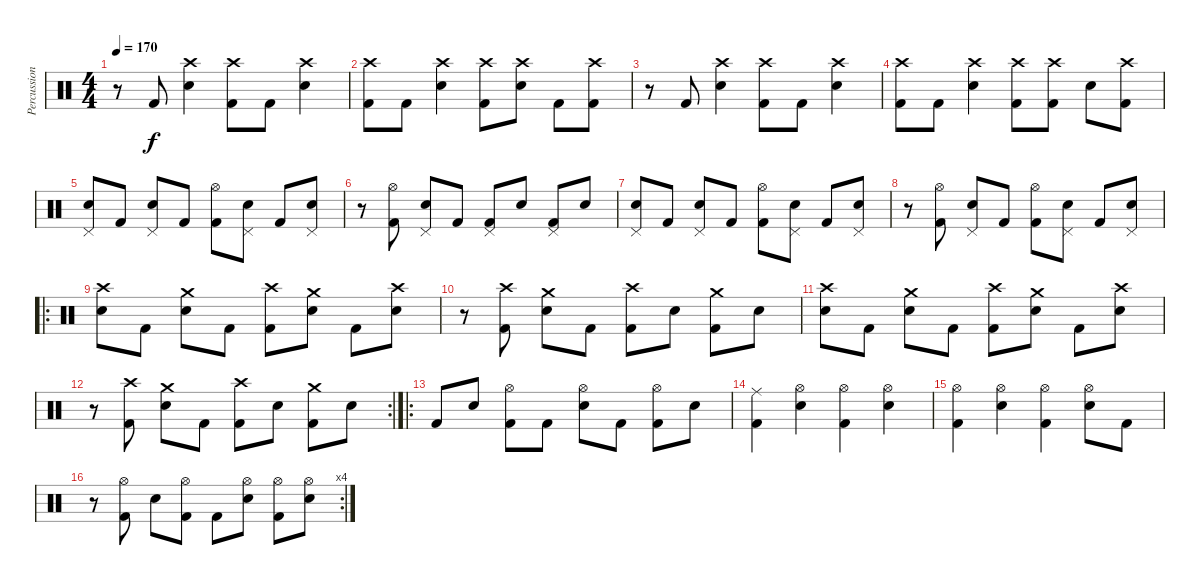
\track ("Percussion" "Percussion") {instrument percussion}
\staff {score}
\articulation defaults
\ts (4 4)
\tempo 170
\clef neutral
\ks c
r.8{dy f} "Kick (hit) 2".8 ("Crash high (hit)" "Snare (hit) 2").4 ("Crash high (hit)" "Kick (hit) 2").8 "Kick (hit) 2".8 ("Crash high (hit)" "Snare (hit) 2").4 |
("Crash high (hit)" "Kick (hit) 2").8 "Kick (hit) 2".8 ("Crash high (hit)" "Snare (hit) 2").4 ("Crash high (hit)" "Kick (hit) 2").8 ("Crash high (hit)" "Snare (hit) 2").8 "Kick (hit) 2".8 ("Crash high (hit)" "Kick (hit) 2").8 |
r.8 "Kick (hit) 2".8 ("Crash high (hit)" "Snare (hit) 2").4 ("Crash high (hit)" "Kick (hit) 2").8 "Kick (hit) 2".8 ("Crash high (hit)" "Snare (hit) 2").4 |
("Crash high (hit)" "Kick (hit) 2").8 "Kick (hit) 2".8 ("Crash high (hit)" "Snare (hit) 2").4 ("Crash high (hit)" "Kick (hit) 2").8 ("Crash high (hit)" "Kick (hit) 2").8 "Snare (hit) 2".8 ("Crash high (hit)" "Kick (hit) 2").8 |
("Pedal Hi-Hat (hit)" "Snare (hit) 2").8{volume 11} "Kick (hit) 2".8 ("Pedal Hi-Hat (hit)" "Snare (hit) 2").8 "Kick (hit) 2".8 ("Hi-Hat (open)" "Kick (hit) 2").8 ("Pedal Hi-Hat (hit)" "Snare (hit) 2").8 "Kick (hit) 2".8 ("Pedal Hi-Hat (hit)" "Snare (hit) 2").8 |
r.8 ("Hi-Hat (open)" "Kick (hit) 2").8 ("Pedal Hi-Hat (hit)" "Snare (hit) 2").8 "Kick (hit) 2".8 ("Pedal Hi-Hat (hit)" "Kick (hit) 2").8 "Snare (hit) 2".8 ("Pedal Hi-Hat (hit)" "Kick (hit) 2").8 "Snare (hit) 2".8 |
("Pedal Hi-Hat (hit)" "Snare (hit) 2").8 "Kick (hit) 2".8 ("Pedal Hi-Hat (hit)" "Snare (hit) 2").8 "Kick (hit) 2".8 ("Hi-Hat (open)" "Kick (hit) 2").8 ("Pedal Hi-Hat (hit)" "Snare (hit) 2").8 "Kick (hit) 2".8 ("Pedal Hi-Hat (hit)" "Snare (hit) 2").8 |
r.8 ("Hi-Hat (open)" "Kick (hit) 2").8 ("Pedal Hi-Hat (hit)" "Snare (hit) 2").8 "Kick (hit) 2".8 ("Hi-Hat (open)" "Kick (hit) 2").8 ("Pedal Hi-Hat (hit)" "Snare (hit) 2").8 "Kick (hit) 2".8 ("Pedal Hi-Hat (hit)" "Snare (hit) 2").8 |
\ro
("Crash high (hit)" "Snare (hit) 2").8{volume 16} "Kick (hit) 2".8 ("Crash medium (hit)" "Snare (hit) 2").8 "Kick (hit) 2".8 ("Crash high (hit)" "Kick (hit) 2").8 ("Crash medium (hit)" "Snare (hit) 2").8 "Kick (hit) 2".8 ("Crash high (hit)" "Snare (hit) 2").8 |
r.8 ("Crash high (hit)" "Kick (hit) 2").8 ("Crash medium (hit)" "Snare (hit) 2").8 "Kick (hit) 2".8 ("Crash high (hit)" "Kick (hit) 2").8 "Snare (hit) 2".8 ("Crash medium (hit)" "Kick (hit) 2").8 "Snare (hit) 2".8 |
("Crash high (hit)" "Snare (hit) 2").8{volume 16} "Kick (hit) 2".8 ("Crash medium (hit)" "Snare (hit) 2").8 "Kick (hit) 2".8 ("Crash high (hit)" "Kick (hit) 2").8 ("Crash medium (hit)" "Snare (hit) 2").8 "Kick (hit) 2".8 ("Crash high (hit)" "Snare (hit) 2").8 |
\rc 2
r.8 ("Crash high (hit)" "Kick (hit) 2").8 ("Crash medium (hit)" "Snare (hit) 2").8 "Kick (hit) 2".8 ("Crash high (hit)" "Kick (hit) 2").8 "Snare (hit) 2".8 ("Crash medium (hit)" "Kick (hit) 2").8 "Snare (hit) 2".8 |
\ro "Kick (hit) 2".8 "Snare (hit) 2".8
("Hi-Hat (open)" "Kick (hit) 2").8 "Kick (hit) 2".8 ("Hi-Hat (open)" "Snare (hit) 2").8 "Kick (hit) 2".8 ("Hi-Hat (open)" "Kick (hit) 2").8 "Snare (hit) 2".8 |
("Ride (middle)" "Kick (hit) 2").4 ("Hi-Hat (open)" "Snare (hit) 2").4 ("Hi-Hat (open)" "Kick (hit) 2").4 ("Hi-Hat (open)" "Snare (hit) 2").4 |
("Hi-Hat (open)" "Kick (hit) 2").4 ("Hi-Hat (open)" "Snare (hit) 2").4 ("Hi-Hat (open)" "Kick (hit) 2").4 ("Hi-Hat (open)" "Snare (hit) 2").8 "Kick (hit) 2".8 |
\rc 4
r.8 ("Hi-Hat (open)" "Kick (hit) 2").8 "Snare (hit) 2".8 ("Hi-Hat (open)" "Kick (hit) 2").8 "Kick (hit) 2".8 ("Hi-Hat (open)" "Snare (hit) 2").8 ("Hi-Hat (open)" "Kick (hit) 2").8 ("Hi-Hat (open)" "Snare (hit) 2").8
